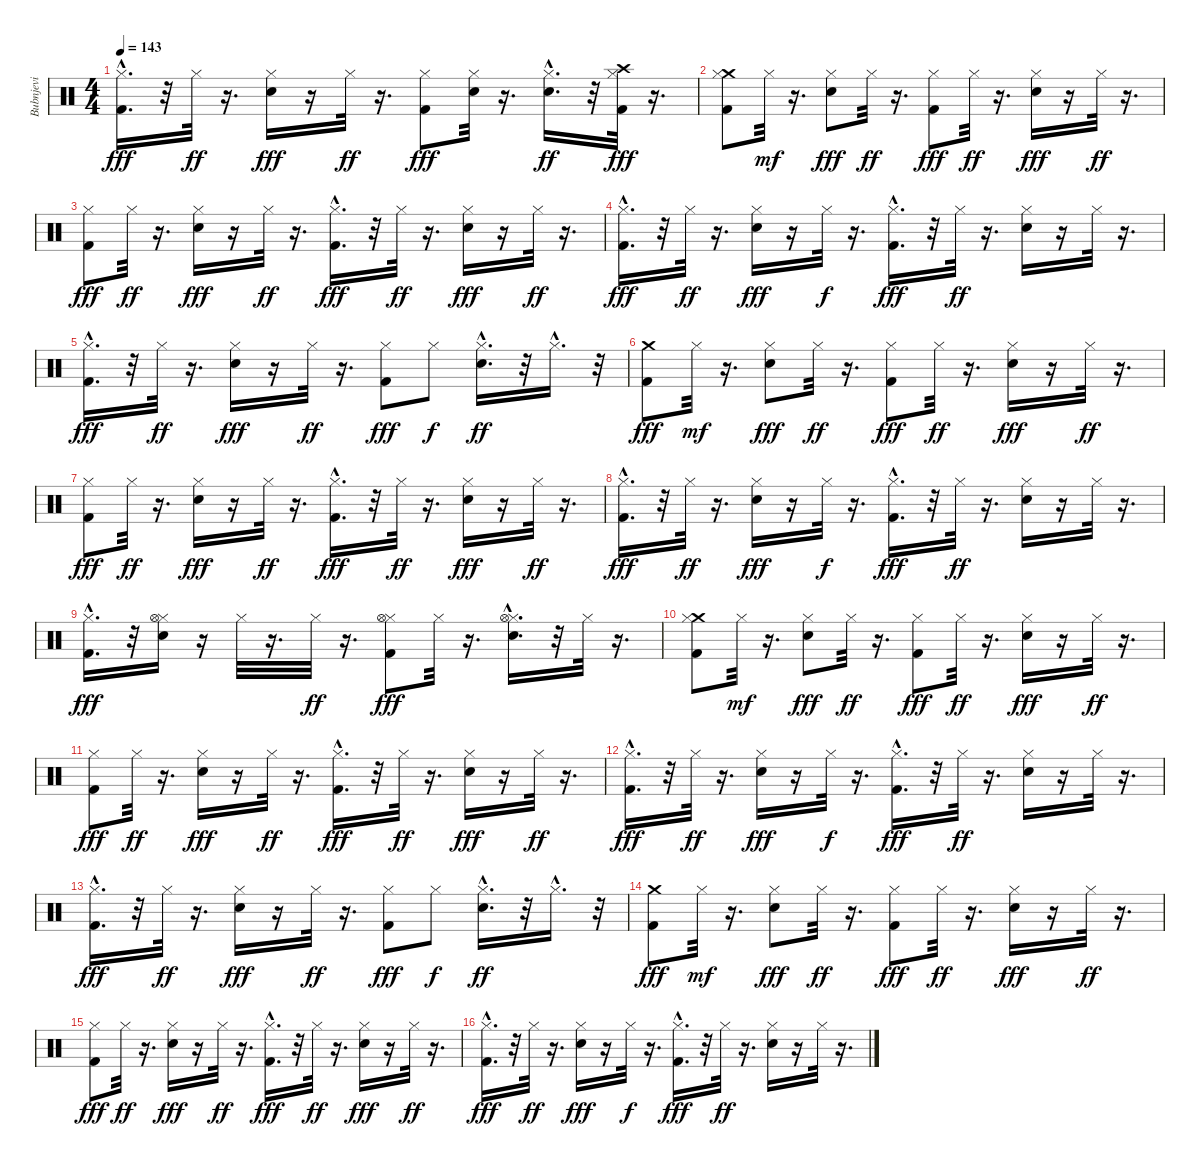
\track ("Bubnjevi" "Bubnjevi") {instrument percussion}
\staff {score}
\articulation defaults
\ts (4 4)
\tempo 143
\clef neutral
\ks c
("Hi-Hat (closed)" "Kick (hit) 2"{hac}).16{d dy fff} r.32 "Hi-Hat (closed)".32{dy ff} r.16{d} ("Snare (hit) 2" "Hi-Hat (closed)").16{dy fff} r.16 "Hi-Hat (closed)".32{dy ff} r.16{d} ("Hi-Hat (closed)" "Kick (hit) 2").8{dy fff} ("Hi-Hat (closed)" "Snare (hit) 2").32 r.16{d} ("Snare (hit) 2"{hac} "Hi-Hat (closed)").16{d dy ff} r.32 ("Crash high (hit)" "Hi-Hat (closed)" "Kick (hit) 2").32{dy fff} r.16{d} |
("Crash medium (hit)" "Hi-Hat (closed)" "Kick (hit) 2").8 "Hi-Hat (closed)".32{dy mf} r.16{d} ("Snare (hit) 2" "Hi-Hat (closed)").8{dy fff} "Hi-Hat (closed)".32{dy ff} r.16{d} ("Hi-Hat (closed)" "Kick (hit) 2").8{dy fff} "Hi-Hat (closed)".32{dy ff} r.16{d} ("Snare (hit) 2" "Hi-Hat (closed)").16{dy fff} r.16 "Hi-Hat (closed)".32{dy ff} r.16{d} |
("Hi-Hat (closed)" "Kick (hit) 2").8{dy fff} "Hi-Hat (closed)".32{dy ff} r.16{d} ("Snare (hit) 2" "Hi-Hat (closed)").16{dy fff} r.16 "Hi-Hat (closed)".32{dy ff} r.16{d} ("Hi-Hat (closed)" "Kick (hit) 2"{hac}).16{d dy fff} r.32 "Hi-Hat (closed)".32{dy ff} r.16{d} ("Hi-Hat (closed)" "Snare (hit) 2").16{dy fff} r.16 "Hi-Hat (closed)".32{dy ff} r.16{d} |
("Hi-Hat (closed)" "Kick (hit) 2"{hac}).16{d dy fff} r.32 "Hi-Hat (closed)".32{dy ff} r.16{d} ("Snare (hit) 2" "Hi-Hat (closed)").16{dy fff} r.16 "Hi-Hat (closed)".32{dy f} r.16{d} ("Hi-Hat (closed)" "Kick (hit) 2"{hac}).16{d dy fff} r.32 "Hi-Hat (closed)".32{dy ff} r.16{d} ("Snare (hit) 2" "Hi-Hat (closed)").16 r.16 "Hi-Hat (closed)".32 r.16{d} |
("Hi-Hat (closed)" "Kick (hit) 2"{hac}).16{d dy fff} r.32 "Hi-Hat (closed)".32{dy ff} r.16{d} ("Snare (hit) 2" "Hi-Hat (closed)").16{dy fff} r.16 "Hi-Hat (closed)".32{dy ff} r.16{d} ("Hi-Hat (closed)" "Kick (hit) 2").8{dy fff} "Hi-Hat (closed)".8{dy f} ("Snare (hit) 2"{hac} "Hi-Hat (closed)").16{d dy ff} r.32 "Hi-Hat (closed)"{hac}.16{d} r.32 |
("Crash medium (hit)" "Kick (hit) 2").8{dy fff} "Hi-Hat (closed)".32{dy mf} r.16{d} ("Snare (hit) 2" "Hi-Hat (closed)").8{dy fff} "Hi-Hat (closed)".32{dy ff} r.16{d} ("Hi-Hat (closed)" "Kick (hit) 2").8{dy fff} "Hi-Hat (closed)".32{dy ff} r.16{d} ("Snare (hit) 2" "Hi-Hat (closed)").16{dy fff} r.16 "Hi-Hat (closed)".32{dy ff} r.16{d} |
("Hi-Hat (closed)" "Kick (hit) 2").8{dy fff} "Hi-Hat (closed)".32{dy ff} r.16{d} ("Snare (hit) 2" "Hi-Hat (closed)").16{dy fff} r.16 "Hi-Hat (closed)".32{dy ff} r.16{d} ("Hi-Hat (closed)" "Kick (hit) 2"{hac}).16{d dy fff} r.32 "Hi-Hat (closed)".32{dy ff} r.16{d} ("Hi-Hat (closed)" "Snare (hit) 2").16{dy fff} r.16 "Hi-Hat (closed)".32{dy ff} r.16{d} |
("Hi-Hat (closed)" "Kick (hit) 2"{hac}).16{d dy fff} r.32 "Hi-Hat (closed)".32{dy ff} r.16{d} ("Snare (hit) 2" "Hi-Hat (closed)").16{dy fff} r.16 "Hi-Hat (closed)".32{dy f} r.16{d} ("Hi-Hat (closed)" "Kick (hit) 2"{hac}).16{d dy fff} r.32 "Hi-Hat (closed)".32{dy ff} r.16{d} ("Snare (hit) 2" "Hi-Hat (closed)").16 r.16 "Hi-Hat (closed)".32 r.16{d} |
("Hi-Hat (closed)" "Kick (hit) 2"{hac}).16{d dy fff} r.32 ("Snare (hit) 2" "Hi-Hat (closed)" "Hi-Hat (open)").16 r.16 "Hi-Hat (closed)".32 r.16{d} "Hi-Hat (closed)".32{dy ff} r.16{d} ("Hi-Hat (closed)" "Hi-Hat (open)" "Kick (hit) 2").8{dy fff} "Hi-Hat (closed)".32 r.16{d} ("Snare (hit) 2"{hac} "Hi-Hat (closed)" "Hi-Hat (open)").16{d} r.32 "Hi-Hat (closed)".32 r.16{d} |
("Crash medium (hit)" "Hi-Hat (closed)" "Kick (hit) 2").8 "Hi-Hat (closed)".32{dy mf} r.16{d} ("Snare (hit) 2" "Hi-Hat (closed)").8{dy fff} "Hi-Hat (closed)".32{dy ff} r.16{d} ("Hi-Hat (closed)" "Kick (hit) 2").8{dy fff} "Hi-Hat (closed)".32{dy ff} r.16{d} ("Snare (hit) 2" "Hi-Hat (closed)").16{dy fff} r.16 "Hi-Hat (closed)".32{dy ff} r.16{d} |
("Hi-Hat (closed)" "Kick (hit) 2").8{dy fff} "Hi-Hat (closed)".32{dy ff} r.16{d} ("Snare (hit) 2" "Hi-Hat (closed)").16{dy fff} r.16 "Hi-Hat (closed)".32{dy ff} r.16{d} ("Hi-Hat (closed)" "Kick (hit) 2"{hac}).16{d dy fff} r.32 "Hi-Hat (closed)".32{dy ff} r.16{d} ("Hi-Hat (closed)" "Snare (hit) 2").16{dy fff} r.16 "Hi-Hat (closed)".32{dy ff} r.16{d} |
("Hi-Hat (closed)" "Kick (hit) 2"{hac}).16{d dy fff} r.32 "Hi-Hat (closed)".32{dy ff} r.16{d} ("Snare (hit) 2" "Hi-Hat (closed)").16{dy fff} r.16 "Hi-Hat (closed)".32{dy f} r.16{d} ("Hi-Hat (closed)" "Kick (hit) 2"{hac}).16{d dy fff} r.32 "Hi-Hat (closed)".32{dy ff} r.16{d} ("Snare (hit) 2" "Hi-Hat (closed)").16 r.16 "Hi-Hat (closed)".32 r.16{d} |
("Hi-Hat (closed)" "Kick (hit) 2"{hac}).16{d dy fff} r.32 "Hi-Hat (closed)".32{dy ff} r.16{d} ("Snare (hit) 2" "Hi-Hat (closed)").16{dy fff} r.16 "Hi-Hat (closed)".32{dy ff} r.16{d} ("Hi-Hat (closed)" "Kick (hit) 2").8{dy fff} "Hi-Hat (closed)".8{dy f} ("Snare (hit) 2"{hac} "Hi-Hat (closed)").16{d dy ff} r.32 "Hi-Hat (closed)"{hac}.16{d} r.32 |
("Crash medium (hit)" "Kick (hit) 2").8{dy fff} "Hi-Hat (closed)".32{dy mf} r.16{d} ("Snare (hit) 2" "Hi-Hat (closed)").8{dy fff} "Hi-Hat (closed)".32{dy ff} r.16{d} ("Hi-Hat (closed)" "Kick (hit) 2").8{dy fff} "Hi-Hat (closed)".32{dy ff} r.16{d} ("Snare (hit) 2" "Hi-Hat (closed)").16{dy fff} r.16 "Hi-Hat (closed)".32{dy ff} r.16{d} |
("Hi-Hat (closed)" "Kick (hit) 2").8{dy fff} "Hi-Hat (closed)".32{dy ff} r.16{d} ("Snare (hit) 2" "Hi-Hat (closed)").16{dy fff} r.16 "Hi-Hat (closed)".32{dy ff} r.16{d} ("Hi-Hat (closed)" "Kick (hit) 2"{hac}).16{d dy fff} r.32 "Hi-Hat (closed)".32{dy ff} r.16{d} ("Hi-Hat (closed)" "Snare (hit) 2").16{dy fff} r.16 "Hi-Hat (closed)".32{dy ff} r.16{d} |
("Hi-Hat (closed)" "Kick (hit) 2"{hac}).16{d dy fff} r.32 "Hi-Hat (closed)".32{dy ff} r.16{d} ("Snare (hit) 2" "Hi-Hat (closed)").16{dy fff} r.16 "Hi-Hat (closed)".32{dy f} r.16{d} ("Hi-Hat (closed)" "Kick (hit) 2"{hac}).16{d dy fff} r.32 "Hi-Hat (closed)".32{dy ff} r.16{d} ("Snare (hit) 2" "Hi-Hat (closed)").16 r.16 "Hi-Hat (closed)".32 r.16{d}
